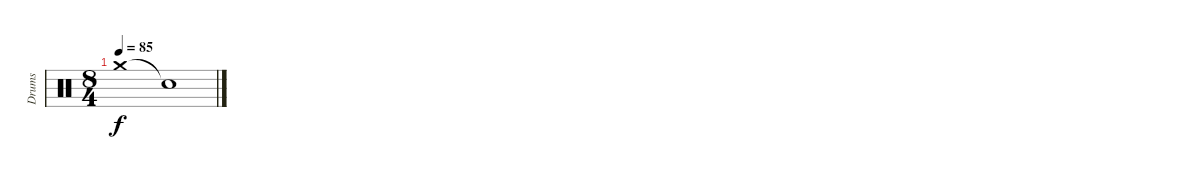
\track ("Drums" "Drums") {instrument percussion}
\staff {score}
\articulation defaults
\ts (8 4)
\tempo 85
\clef neutral
\ks c "Crash medium (hit)".1{dy f} "Snare (hit)"{t}.1
